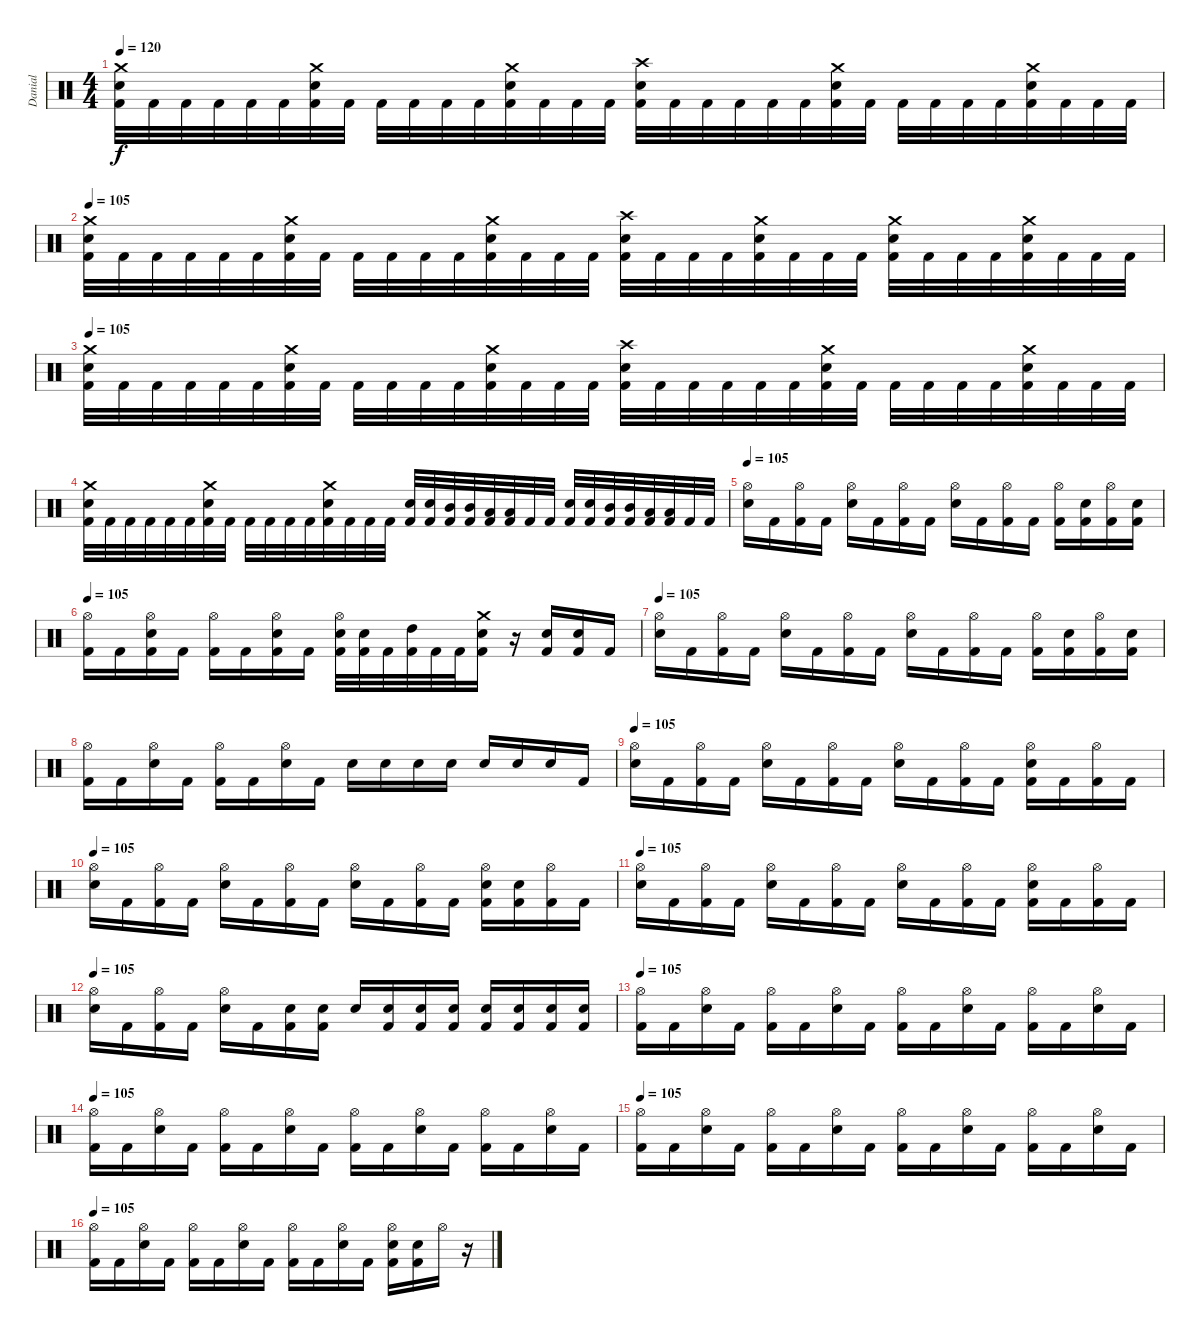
\track ("Danial" "Danial") {instrument percussion}
\staff {score}
\articulation defaults
\ts (4 4)
\tempo 120
\tempo 105
\tempo 120
\clef neutral
\ks c
("Crash medium (hit)" "Snare (hit) 2" "Kick (hit) 2").32{dy f} "Kick (hit) 2".32 "Kick (hit) 2".32 "Kick (hit) 2".32 "Kick (hit) 2".32 "Kick (hit) 2".32 ("Crash medium (hit)" "Snare (hit) 2" "Kick (hit) 2").32 "Kick (hit) 2".32 "Kick (hit) 2".32 "Kick (hit) 2".32 "Kick (hit) 2".32 "Kick (hit) 2".32 ("Crash medium (hit)" "Snare (hit) 2" "Kick (hit) 2").32 "Kick (hit) 2".32 "Kick (hit) 2".32 "Kick (hit) 2".32 ("Crash high (hit)" "Snare (hit) 2" "Kick (hit) 2").32 "Kick (hit) 2".32 "Kick (hit) 2".32 "Kick (hit) 2".32 "Kick (hit) 2".32 "Kick (hit) 2".32 ("Crash medium (hit)" "Snare (hit) 2" "Kick (hit) 2").32 "Kick (hit) 2".32 "Kick (hit) 2".32 "Kick (hit) 2".32 "Kick (hit) 2".32 "Kick (hit) 2".32 ("Crash medium (hit)" "Snare (hit) 2" "Kick (hit) 2").32 "Kick (hit) 2".32 "Kick (hit) 2".32 "Kick (hit) 2".32 |
\tempo 105
("Crash medium (hit)" "Snare (hit) 2" "Kick (hit) 2").32 "Kick (hit) 2".32 "Kick (hit) 2".32 "Kick (hit) 2".32 "Kick (hit) 2".32 "Kick (hit) 2".32 ("Crash medium (hit)" "Snare (hit) 2" "Kick (hit) 2").32 "Kick (hit) 2".32 "Kick (hit) 2".32 "Kick (hit) 2".32 "Kick (hit) 2".32 "Kick (hit) 2".32 ("Crash medium (hit)" "Snare (hit) 2" "Kick (hit) 2").32 "Kick (hit) 2".32 "Kick (hit) 2".32 "Kick (hit) 2".32 ("Crash high (hit)" "Snare (hit) 2" "Kick (hit) 2").32 "Kick (hit) 2".32 "Kick (hit) 2".32 "Kick (hit) 2".32 ("Snare (hit) 2" "Crash medium (hit)" "Kick (hit) 2").32 "Kick (hit) 2".32 "Kick (hit) 2".32 "Kick (hit) 2".32 ("Crash medium (hit)" "Snare (hit) 2" "Kick (hit) 2").32 "Kick (hit) 2".32 "Kick (hit) 2".32 "Kick (hit) 2".32 ("Crash medium (hit)" "Snare (hit) 2" "Kick (hit) 2").32 "Kick (hit) 2".32 "Kick (hit) 2".32 "Kick (hit) 2".32 |
\tempo 105
("Crash medium (hit)" "Snare (hit) 2" "Kick (hit) 2").32 "Kick (hit) 2".32 "Kick (hit) 2".32 "Kick (hit) 2".32 "Kick (hit) 2".32 "Kick (hit) 2".32 ("Crash medium (hit)" "Snare (hit) 2" "Kick (hit) 2").32 "Kick (hit) 2".32 "Kick (hit) 2".32 "Kick (hit) 2".32 "Kick (hit) 2".32 "Kick (hit) 2".32 ("Crash medium (hit)" "Snare (hit) 2" "Kick (hit) 2").32 "Kick (hit) 2".32 "Kick (hit) 2".32 "Kick (hit) 2".32 ("Crash high (hit)" "Snare (hit) 2" "Kick (hit) 2").32 "Kick (hit) 2".32 "Kick (hit) 2".32 "Kick (hit) 2".32 "Kick (hit) 2".32 "Kick (hit) 2".32 ("Crash medium (hit)" "Snare (hit) 2" "Kick (hit) 2").32 "Kick (hit) 2".32 "Kick (hit) 2".32 "Kick (hit) 2".32 "Kick (hit) 2".32 "Kick (hit) 2".32 ("Crash medium (hit)" "Snare (hit) 2" "Kick (hit) 2").32 "Kick (hit) 2".32 "Kick (hit) 2".32 "Kick (hit) 2".32 |
("Snare (hit) 2" "Crash medium (hit)" "Kick (hit) 2").32 "Kick (hit) 2".32 "Kick (hit) 2".32 "Kick (hit) 2".32 "Kick (hit) 2".32 "Kick (hit) 2".32 ("Snare (hit) 2" "Crash medium (hit)" "Kick (hit) 2").32 "Kick (hit) 2".32 "Kick (hit) 2".32 "Kick (hit) 2".32 "Kick (hit) 2".32 "Kick (hit) 2".32 ("Crash medium (hit)" "Snare (hit) 2" "Kick (hit) 2").32 "Kick (hit) 2".32 "Kick (hit) 2".32 "Kick (hit) 2".32 ("Snare (hit) 2" "Kick (hit) 2").32 ("Snare (hit) 2" "Kick (hit) 2").32 ("Mid Tom (hit)" "Kick (hit) 2").32 ("Mid Tom (hit)" "Kick (hit) 2").32 ("Low Tom (hit)" "Kick (hit) 2").32 ("Low Tom (hit)" "Kick (hit) 2").32 "Kick (hit) 2".32 "Kick (hit) 2".32 ("Snare (hit) 2" "Kick (hit) 2").32 ("Snare (hit) 2" "Kick (hit) 2").32 ("Mid Tom (hit)" "Kick (hit) 2").32 ("Mid Tom (hit)" "Kick (hit) 2").32 ("Low Tom (hit)" "Kick (hit) 2").32 ("Low Tom (hit)" "Kick (hit) 2").32 "Kick (hit) 2".32 "Kick (hit) 2".32 |
\tempo 105
("Hi-Hat (open)" "Snare (hit) 2").16 "Kick (hit) 2".16 ("Hi-Hat (open)" "Kick (hit) 2").16 "Kick (hit) 2".16 ("Hi-Hat (open)" "Snare (hit) 2").16 "Kick (hit) 2".16 ("Hi-Hat (open)" "Kick (hit) 2").16 "Kick (hit) 2".16 ("Hi-Hat (open)" "Snare (hit) 2").16 "Kick (hit) 2".16 ("Hi-Hat (open)" "Kick (hit) 2").16 "Kick (hit) 2".16 ("Hi-Hat (open)" "Kick (hit) 2").16 ("Snare (hit) 2" "Kick (hit) 2").16 ("Hi-Hat (open)" "Kick (hit) 2").16 ("Snare (hit) 2" "Kick (hit) 2").16 |
\tempo 105
("Hi-Hat (open)" "Kick (hit) 2").16 "Kick (hit) 2".16 ("Hi-Hat (open)" "Snare (hit) 2" "Kick (hit) 2").16 "Kick (hit) 2".16 ("Hi-Hat (open)" "Kick (hit) 2").16 "Kick (hit) 2".16 ("Hi-Hat (open)" "Snare (hit) 2" "Kick (hit) 2").16 "Kick (hit) 2".16 ("Hi-Hat (open)" "Snare (hit) 2" "Kick (hit) 2").32 ("Snare (hit) 2" "Kick (hit) 2").32 "Kick (hit) 2".32 ("High Tom (hit)" "Kick (hit) 2").32 "Kick (hit) 2".32 "Kick (hit) 2".32 ("Crash medium (hit)" "Snare (hit) 2" "Kick (hit) 2").16 r.16 ("Snare (hit) 2" "Kick (hit) 2").16 ("Snare (hit) 2" "Kick (hit) 2").16 "Kick (hit) 2".16 |
\tempo 105
("Hi-Hat (open)" "Snare (hit) 2").16 "Kick (hit) 2".16 ("Hi-Hat (open)" "Kick (hit) 2").16 "Kick (hit) 2".16 ("Hi-Hat (open)" "Snare (hit) 2").16 "Kick (hit) 2".16 ("Hi-Hat (open)" "Kick (hit) 2").16 "Kick (hit) 2".16 ("Hi-Hat (open)" "Snare (hit) 2").16 "Kick (hit) 2".16 ("Hi-Hat (open)" "Kick (hit) 2").16 "Kick (hit) 2".16 ("Hi-Hat (open)" "Kick (hit) 2").16 ("Snare (hit) 2" "Kick (hit) 2").16 ("Hi-Hat (open)" "Kick (hit) 2").16 ("Snare (hit) 2" "Kick (hit) 2").16 |
("Hi-Hat (open)" "Kick (hit) 2").16 "Kick (hit) 2".16 ("Hi-Hat (open)" "Snare (hit) 2").16 "Kick (hit) 2".16 ("Hi-Hat (open)" "Kick (hit) 2").16 "Kick (hit) 2".16 ("Hi-Hat (open)" "Snare (hit) 2").16 "Kick (hit) 2".16 "Snare (hit) 2".16 "Snare (hit) 2".16 "Snare (hit) 2".16 "Snare (hit) 2".16 "Snare (hit) 2".16 "Snare (hit) 2".16 "Snare (hit) 2".16 "Kick (hit) 2".16 |
\tempo 105
("Hi-Hat (open)" "Snare (hit) 2").16 "Kick (hit) 2".16 ("Hi-Hat (open)" "Kick (hit) 2").16 "Kick (hit) 2".16 ("Hi-Hat (open)" "Snare (hit) 2").16 "Kick (hit) 2".16 ("Hi-Hat (open)" "Kick (hit) 2").16 "Kick (hit) 2".16 ("Hi-Hat (open)" "Snare (hit) 2").16 "Kick (hit) 2".16 ("Hi-Hat (open)" "Kick (hit) 2").16 "Kick (hit) 2".16 ("Hi-Hat (open)" "Snare (hit) 2" "Kick (hit) 2").16 "Kick (hit) 2".16 ("Hi-Hat (open)" "Kick (hit) 2").16 "Kick (hit) 2".16 |
\tempo 105
("Hi-Hat (open)" "Snare (hit) 2").16 "Kick (hit) 2".16 ("Hi-Hat (open)" "Kick (hit) 2").16 "Kick (hit) 2".16 ("Hi-Hat (open)" "Snare (hit) 2").16 "Kick (hit) 2".16 ("Hi-Hat (open)" "Kick (hit) 2").16 "Kick (hit) 2".16 ("Hi-Hat (open)" "Snare (hit) 2").16 "Kick (hit) 2".16 ("Hi-Hat (open)" "Kick (hit) 2").16 "Kick (hit) 2".16 ("Hi-Hat (open)" "Snare (hit) 2" "Kick (hit) 2").16 ("Snare (hit) 2" "Kick (hit) 2").16 ("Hi-Hat (open)" "Kick (hit) 2").16 "Kick (hit) 2".16 |
\tempo 105
("Hi-Hat (open)" "Snare (hit) 2").16 "Kick (hit) 2".16 ("Hi-Hat (open)" "Kick (hit) 2").16 "Kick (hit) 2".16 ("Hi-Hat (open)" "Snare (hit) 2").16 "Kick (hit) 2".16 ("Hi-Hat (open)" "Kick (hit) 2").16 "Kick (hit) 2".16 ("Hi-Hat (open)" "Snare (hit) 2").16 "Kick (hit) 2".16 ("Hi-Hat (open)" "Kick (hit) 2").16 "Kick (hit) 2".16 ("Hi-Hat (open)" "Snare (hit) 2" "Kick (hit) 2").16 "Kick (hit) 2".16 ("Hi-Hat (open)" "Kick (hit) 2").16 "Kick (hit) 2".16 |
\tempo 105
("Hi-Hat (open)" "Snare (hit) 2").16 "Kick (hit) 2".16 ("Hi-Hat (open)" "Kick (hit) 2").16 "Kick (hit) 2".16 ("Hi-Hat (open)" "Snare (hit) 2").16 "Kick (hit) 2".16 ("Snare (hit) 2" "Kick (hit) 2").16 ("Snare (hit) 2" "Kick (hit) 2").16 "Snare (hit) 2".16 ("Snare (hit) 2" "Kick (hit) 2").16 ("Snare (hit) 2" "Kick (hit) 2").16 ("Snare (hit) 2" "Kick (hit) 2").16 ("Snare (hit) 2" "Kick (hit) 2").16 ("Snare (hit) 2" "Kick (hit) 2").16 ("Snare (hit) 2" "Kick (hit) 2").16 ("Snare (hit) 2" "Kick (hit) 2").16 |
\tempo 105
("Hi-Hat (open)" "Kick (hit) 2").16 "Kick (hit) 2".16 ("Hi-Hat (open)" "Snare (hit) 2").16 "Kick (hit) 2".16 ("Hi-Hat (open)" "Kick (hit) 2").16 "Kick (hit) 2".16 ("Hi-Hat (open)" "Snare (hit) 2").16 "Kick (hit) 2".16 ("Hi-Hat (open)" "Kick (hit) 2").16 "Kick (hit) 2".16 ("Hi-Hat (open)" "Snare (hit) 2").16 "Kick (hit) 2".16 ("Hi-Hat (open)" "Kick (hit) 2").16 "Kick (hit) 2".16 ("Hi-Hat (open)" "Snare (hit) 2").16 "Kick (hit) 2".16 |
\tempo 105
("Hi-Hat (open)" "Kick (hit) 2").16 "Kick (hit) 2".16 ("Hi-Hat (open)" "Snare (hit) 2").16 "Kick (hit) 2".16 ("Hi-Hat (open)" "Kick (hit) 2").16 "Kick (hit) 2".16 ("Hi-Hat (open)" "Snare (hit) 2").16 "Kick (hit) 2".16 ("Hi-Hat (open)" "Kick (hit) 2").16 "Kick (hit) 2".16 ("Hi-Hat (open)" "Snare (hit) 2").16 "Kick (hit) 2".16 ("Hi-Hat (open)" "Kick (hit) 2").16 "Kick (hit) 2".16 ("Hi-Hat (open)" "Snare (hit) 2").16 "Kick (hit) 2".16 |
\tempo 105
("Hi-Hat (open)" "Kick (hit) 2").16 "Kick (hit) 2".16 ("Hi-Hat (open)" "Snare (hit) 2").16 "Kick (hit) 2".16 ("Hi-Hat (open)" "Kick (hit) 2").16 "Kick (hit) 2".16 ("Hi-Hat (open)" "Snare (hit) 2").16 "Kick (hit) 2".16 ("Hi-Hat (open)" "Kick (hit) 2").16 "Kick (hit) 2".16 ("Hi-Hat (open)" "Snare (hit) 2").16 "Kick (hit) 2".16 ("Hi-Hat (open)" "Kick (hit) 2").16 "Kick (hit) 2".16 ("Hi-Hat (open)" "Snare (hit) 2").16 "Kick (hit) 2".16 |
\tempo 105
("Hi-Hat (open)" "Kick (hit) 2").16 "Kick (hit) 2".16 ("Hi-Hat (open)" "Snare (hit) 2").16 "Kick (hit) 2".16 ("Hi-Hat (open)" "Kick (hit) 2").16 "Kick (hit) 2".16 ("Hi-Hat (open)" "Snare (hit) 2").16 "Kick (hit) 2".16 ("Hi-Hat (open)" "Kick (hit) 2").16 "Kick (hit) 2".16 ("Hi-Hat (open)" "Snare (hit) 2").16 "Kick (hit) 2".16 ("Hi-Hat (open)" "Snare (hit) 2" "Kick (hit) 2").16 ("Snare (hit) 2" "Kick (hit) 2").16 "Hi-Hat (open)".16 r.16
